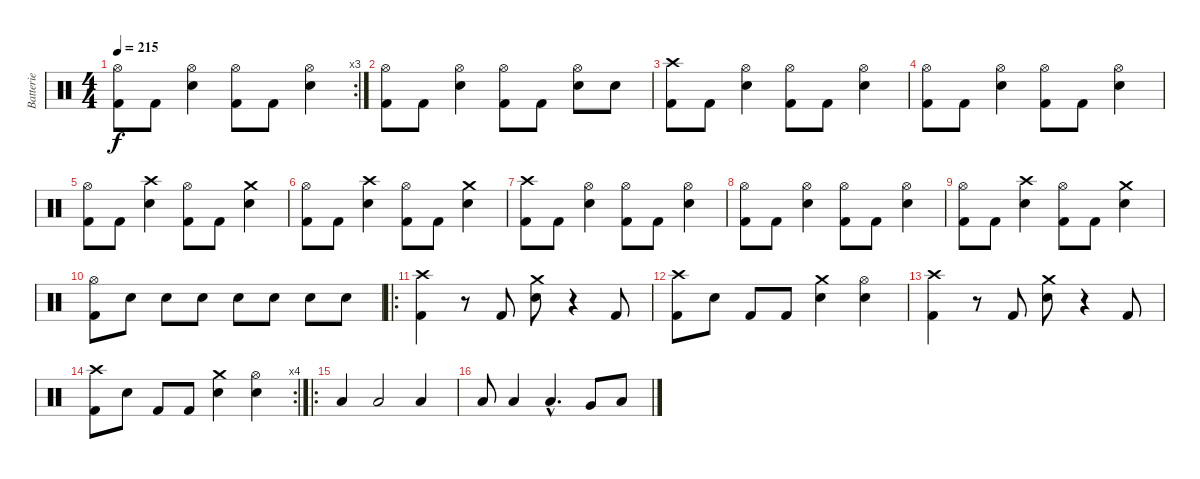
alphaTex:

\track ("Batterie" "Batterie") {instrument percussion}
\staff {score}
\articulation defaults
\rc 3
\ts (4 4)
\tempo 215
\clef neutral
\ks c
("Hi-Hat (open)" "Kick (hit) 2").8{dy f} "Kick (hit) 2".8 ("Hi-Hat (open)" "Electric Snare (hit)").4 ("Hi-Hat (open)" "Kick (hit) 2").8 "Kick (hit) 2".8 ("Hi-Hat (open)" "Electric Snare (hit)").4 |
("Hi-Hat (open)" "Kick (hit) 2").8 "Kick (hit) 2".8 ("Hi-Hat (open)" "Electric Snare (hit)").4 ("Hi-Hat (open)" "Kick (hit) 2").8 "Kick (hit) 2".8 ("Hi-Hat (open)" "Electric Snare (hit)").8 "Electric Snare (hit)".8 |
("Crash high (hit)" "Kick (hit) 2").8 "Kick (hit) 2".8 ("Hi-Hat (open)" "Electric Snare (hit)").4 ("Hi-Hat (open)" "Kick (hit) 2").8 "Kick (hit) 2".8 ("Hi-Hat (open)" "Electric Snare (hit)").4 |
("Hi-Hat (open)" "Kick (hit) 2").8 "Kick (hit) 2".8 ("Hi-Hat (open)" "Electric Snare (hit)").4 ("Hi-Hat (open)" "Kick (hit) 2").8 "Kick (hit) 2".8 ("Hi-Hat (open)" "Electric Snare (hit)").4 |
("Hi-Hat (open)" "Kick (hit) 2").8 "Kick (hit) 2".8 ("Crash high (hit)" "Electric Snare (hit)").4 ("Hi-Hat (open)" "Kick (hit) 2").8 "Kick (hit) 2".8 ("Crash medium (hit)" "Electric Snare (hit)").4 |
("Hi-Hat (open)" "Kick (hit) 2").8 "Kick (hit) 2".8 ("Crash high (hit)" "Electric Snare (hit)").4 ("Hi-Hat (open)" "Kick (hit) 2").8 "Kick (hit) 2".8 ("Crash medium (hit)" "Electric Snare (hit)").4 |
("Crash high (hit)" "Kick (hit) 2").8 "Kick (hit) 2".8 ("Hi-Hat (open)" "Electric Snare (hit)").4 ("Hi-Hat (open)" "Kick (hit) 2").8 "Kick (hit) 2".8 ("Hi-Hat (open)" "Electric Snare (hit)").4 |
("Hi-Hat (open)" "Kick (hit) 2").8 "Kick (hit) 2".8 ("Hi-Hat (open)" "Electric Snare (hit)").4 ("Hi-Hat (open)" "Kick (hit) 2").8 "Kick (hit) 2".8 ("Hi-Hat (open)" "Electric Snare (hit)").4 |
("Hi-Hat (open)" "Kick (hit) 2").8 "Kick (hit) 2".8 ("Crash high (hit)" "Electric Snare (hit)").4 ("Hi-Hat (open)" "Kick (hit) 2").8 "Kick (hit) 2".8 ("Crash medium (hit)" "Electric Snare (hit)").4 |
("Hi-Hat (open)" "Kick (hit) 2").8 "Electric Snare (hit)".8 "Electric Snare (hit)".8 "Electric Snare (hit)".8 "Electric Snare (hit)".8 "Electric Snare (hit)".8 "Electric Snare (hit)".8 "Electric Snare (hit)".8 |
\ro
("Crash high (hit)" "Kick (hit) 2").4 r.8 "Kick (hit) 2".8 ("Crash medium (hit)" "Electric Snare (hit)").8 r.4 "Kick (hit) 2".8 |
("Crash high (hit)" "Kick (hit) 2").8 "Electric Snare (hit)".8 "Kick (hit) 2".8 "Kick (hit) 2".8 ("Crash medium (hit)" "Electric Snare (hit)").4 ("Hi-Hat (open)" "Electric Snare (hit)").4 |
("Crash high (hit)" "Kick (hit) 2").4 r.8 "Kick (hit) 2".8 ("Crash medium (hit)" "Electric Snare (hit)").8 r.4 "Kick (hit) 2".8 |
\rc 4
("Crash high (hit)" "Kick (hit) 2").8 "Electric Snare (hit)".8 "Kick (hit) 2".8 "Kick (hit) 2".8 ("Crash medium (hit)" "Electric Snare (hit)").4 ("Hi-Hat (open)" "Electric Snare (hit)").4 |
\ro "Low Floor Tom (hit)".4 "Low Tom (hit)".2 "Low Floor Tom (hit)".4
|
"Low Tom (hit)".8 "Low Tom (hit)".4 "Low Tom (hit)"{hac}.4{d} "Very Low Tom (hit)".8 "Low Tom (hit)".8
